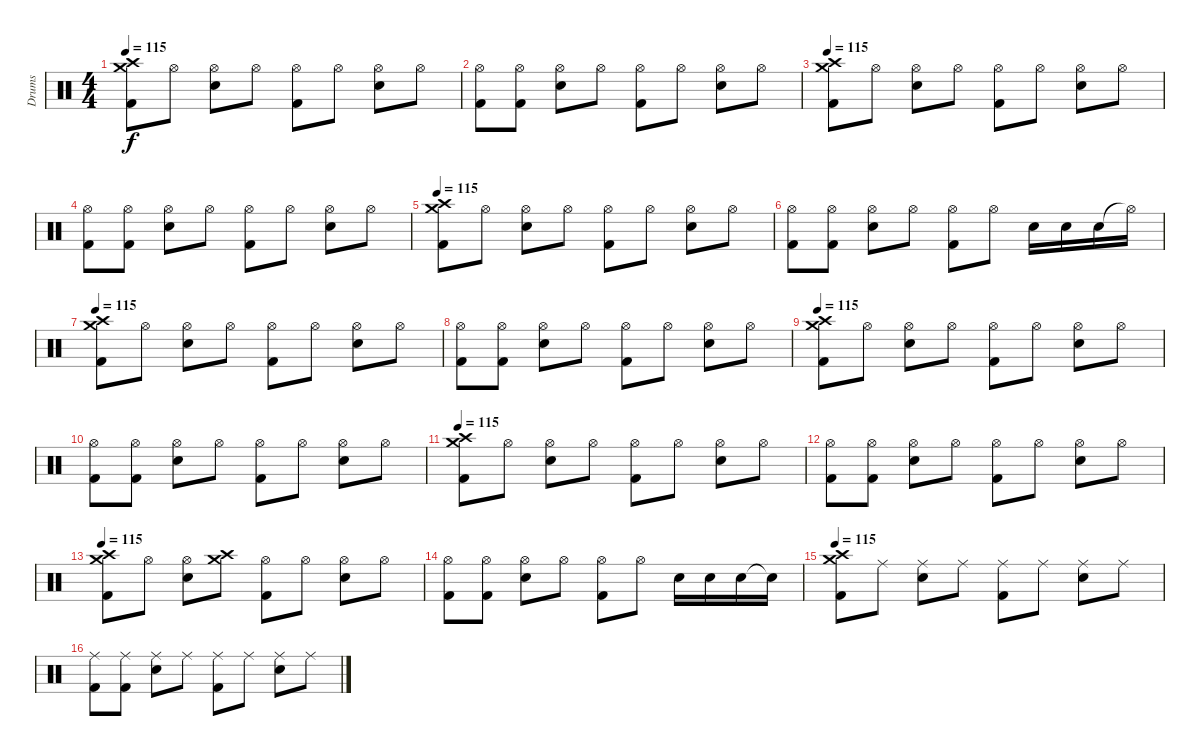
\track ("Drums" "Drums") {instrument percussion}
\staff {score}
\articulation defaults
\ts (4 4)
\tempo 115
\clef neutral
\ks c
("Crash high (hit)" "Crash medium (hit)" "Kick (hit) 2").8{dy f} "Hi-Hat (open)".8 ("Hi-Hat (open)" "Electric Snare (hit)").8 "Hi-Hat (open)".8 ("Hi-Hat (open)" "Kick (hit) 2").8 "Hi-Hat (open)".8 ("Hi-Hat (open)" "Electric Snare (hit)").8 "Hi-Hat (open)".8 |
("Hi-Hat (open)" "Kick (hit) 2").8 ("Hi-Hat (open)" "Kick (hit) 2").8 ("Hi-Hat (open)" "Electric Snare (hit)").8 "Hi-Hat (open)".8 ("Hi-Hat (open)" "Kick (hit) 2").8 "Hi-Hat (open)".8 ("Hi-Hat (open)" "Electric Snare (hit)").8 "Hi-Hat (open)".8 |
\tempo 115
("Crash high (hit)" "Crash medium (hit)" "Kick (hit) 2").8 "Hi-Hat (open)".8 ("Hi-Hat (open)" "Electric Snare (hit)").8 "Hi-Hat (open)".8 ("Hi-Hat (open)" "Kick (hit) 2").8 "Hi-Hat (open)".8 ("Hi-Hat (open)" "Electric Snare (hit)").8 "Hi-Hat (open)".8 |
("Hi-Hat (open)" "Kick (hit) 2").8 ("Hi-Hat (open)" "Kick (hit) 2").8 ("Hi-Hat (open)" "Electric Snare (hit)").8 "Hi-Hat (open)".8 ("Hi-Hat (open)" "Kick (hit) 2").8 "Hi-Hat (open)".8 ("Hi-Hat (open)" "Electric Snare (hit)").8 "Hi-Hat (open)".8 |
\tempo 115
("Crash high (hit)" "Crash medium (hit)" "Kick (hit) 2").8 "Hi-Hat (open)".8 ("Hi-Hat (open)" "Electric Snare (hit)").8 "Hi-Hat (open)".8 ("Hi-Hat (open)" "Kick (hit) 2").8 "Hi-Hat (open)".8 ("Hi-Hat (open)" "Electric Snare (hit)").8 "Hi-Hat (open)".8 |
("Hi-Hat (open)" "Kick (hit) 2").8 ("Hi-Hat (open)" "Kick (hit) 2").8 ("Hi-Hat (open)" "Electric Snare (hit)").8 "Hi-Hat (open)".8 ("Hi-Hat (open)" "Kick (hit) 2").8 "Hi-Hat (open)".8 "Electric Snare (hit)".16 "Electric Snare (hit)".16 "Electric Snare (hit)".16 "Hi-Hat (open)"{t}.16 |
\tempo 115
("Crash high (hit)" "Crash medium (hit)" "Kick (hit) 2").8 "Hi-Hat (open)".8 ("Hi-Hat (open)" "Electric Snare (hit)").8 "Hi-Hat (open)".8 ("Hi-Hat (open)" "Kick (hit) 2").8 "Hi-Hat (open)".8 ("Hi-Hat (open)" "Electric Snare (hit)").8 "Hi-Hat (open)".8 |
("Hi-Hat (open)" "Kick (hit) 2").8 ("Hi-Hat (open)" "Kick (hit) 2").8 ("Hi-Hat (open)" "Electric Snare (hit)").8 "Hi-Hat (open)".8 ("Hi-Hat (open)" "Kick (hit) 2").8 "Hi-Hat (open)".8 ("Hi-Hat (open)" "Electric Snare (hit)").8 "Hi-Hat (open)".8 |
\tempo 115
("Crash high (hit)" "Crash medium (hit)" "Kick (hit) 2").8 "Hi-Hat (open)".8 ("Hi-Hat (open)" "Electric Snare (hit)").8 "Hi-Hat (open)".8 ("Hi-Hat (open)" "Kick (hit) 2").8 "Hi-Hat (open)".8 ("Hi-Hat (open)" "Electric Snare (hit)").8 "Hi-Hat (open)".8 |
("Hi-Hat (open)" "Kick (hit) 2").8 ("Hi-Hat (open)" "Kick (hit) 2").8 ("Hi-Hat (open)" "Electric Snare (hit)").8 "Hi-Hat (open)".8 ("Hi-Hat (open)" "Kick (hit) 2").8 "Hi-Hat (open)".8 ("Hi-Hat (open)" "Electric Snare (hit)").8 "Hi-Hat (open)".8 |
\tempo 115
("Crash high (hit)" "Crash medium (hit)" "Kick (hit) 2").8 "Hi-Hat (open)".8 ("Hi-Hat (open)" "Electric Snare (hit)").8 "Hi-Hat (open)".8 ("Hi-Hat (open)" "Kick (hit) 2").8 "Hi-Hat (open)".8 ("Hi-Hat (open)" "Electric Snare (hit)").8 "Hi-Hat (open)".8 |
("Hi-Hat (open)" "Kick (hit) 2").8 ("Hi-Hat (open)" "Kick (hit) 2").8 ("Hi-Hat (open)" "Electric Snare (hit)").8 "Hi-Hat (open)".8 ("Hi-Hat (open)" "Kick (hit) 2").8 "Hi-Hat (open)".8 ("Hi-Hat (open)" "Electric Snare (hit)").8 "Hi-Hat (open)".8 |
\tempo 115
("Crash high (hit)" "Crash medium (hit)" "Kick (hit) 2").8 "Hi-Hat (open)".8 ("Hi-Hat (open)" "Electric Snare (hit)").8 ("Crash high (hit)" "Crash medium (hit)").8 ("Hi-Hat (open)" "Kick (hit) 2").8 "Hi-Hat (open)".8 ("Hi-Hat (open)" "Electric Snare (hit)").8 "Hi-Hat (open)".8 |
("Hi-Hat (open)" "Kick (hit) 2").8 ("Hi-Hat (open)" "Kick (hit) 2").8 ("Hi-Hat (open)" "Electric Snare (hit)").8 "Hi-Hat (open)".8 ("Hi-Hat (open)" "Kick (hit) 2").8 "Hi-Hat (open)".8 "Electric Snare (hit)".16 "Electric Snare (hit)".16 "Electric Snare (hit)".16 "Snare (hit)"{t}.16 |
\tempo 115
("Crash high (hit)" "Crash medium (hit)" "Kick (hit) 2").8 "Ride (middle)".8 ("Ride (middle)" "Electric Snare (hit)").8 "Ride (middle)".8 ("Ride (middle)" "Kick (hit) 2").8 "Ride (middle)".8 ("Ride (middle)" "Electric Snare (hit)").8 "Ride (middle)".8 |
("Ride (middle)" "Kick (hit) 2").8 ("Ride (middle)" "Kick (hit) 2").8 ("Ride (middle)" "Electric Snare (hit)").8 "Ride (middle)".8 ("Ride (middle)" "Kick (hit) 2").8 "Ride (middle)".8 ("Ride (middle)" "Electric Snare (hit)").8 "Ride (middle)".8
